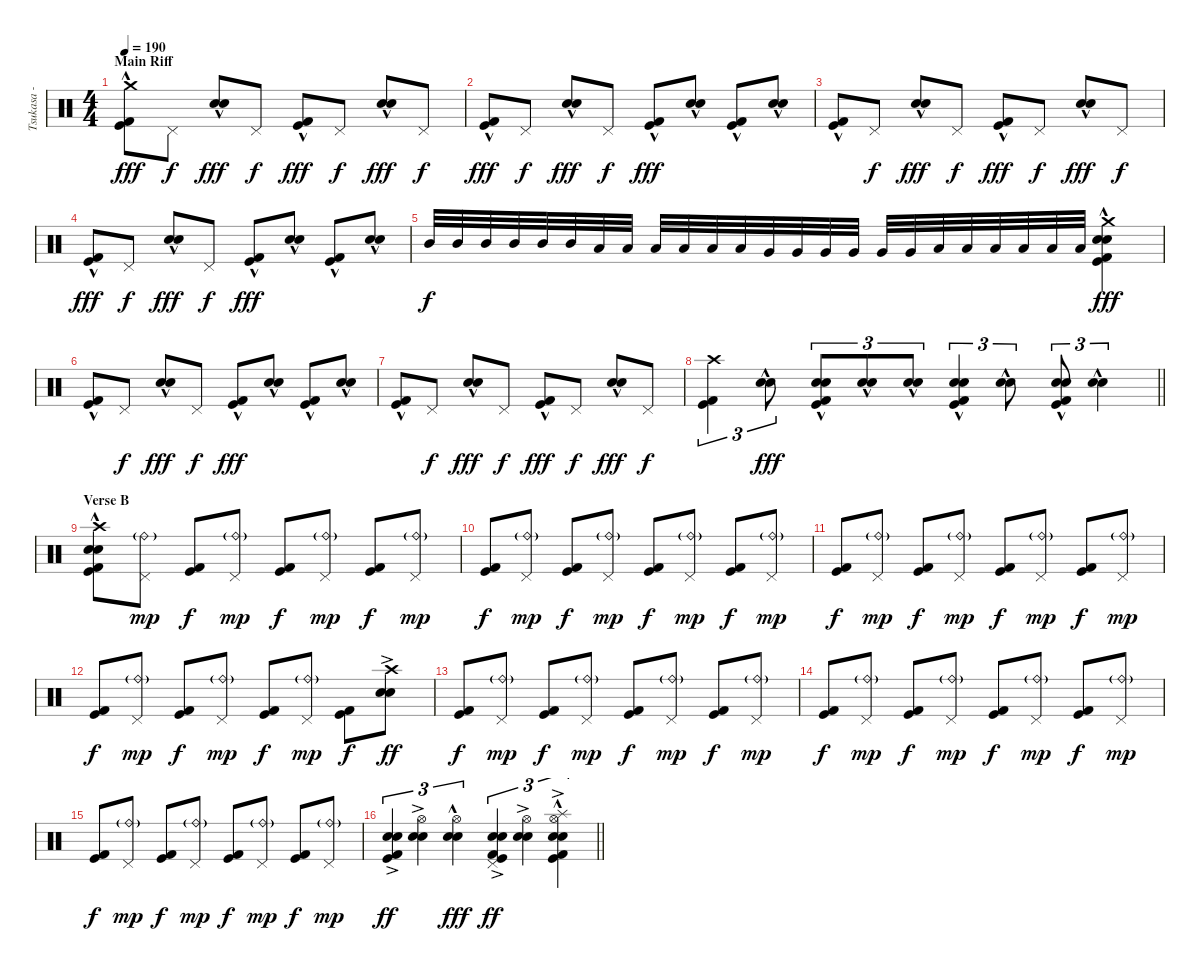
\track ("Tsukasa - Drums" "Tsukasa - ") {instrument percussion}
\staff {score}
\articulation defaults
\ts (4 4)
\section ("" "Main Riff")
\tempo 190
\clef neutral
\ks c
("Crash medium (hit)" "Kick (hit)"{hac} "Kick (hit) 2"{hac}).8{dy fff} "Pedal Hi-Hat (hit)".8{dy f} ("Electric Snare (hit)"{hac} "Snare (hit) 2"{hac}).8{dy fff} "Pedal Hi-Hat (hit)".8{dy f} ("Kick (hit)"{hac} "Kick (hit) 2"{hac}).8{dy fff} "Pedal Hi-Hat (hit)".8{dy f} ("Electric Snare (hit)"{hac} "Snare (hit) 2").8{dy fff} "Pedal Hi-Hat (hit)".8{dy f} |
("Kick (hit)"{hac} "Kick (hit) 2"{hac}).8{dy fff} "Pedal Hi-Hat (hit)".8{dy f} ("Electric Snare (hit)"{hac} "Snare (hit) 2"{hac}).8{dy fff} "Pedal Hi-Hat (hit)".8{dy f} ("Kick (hit)"{hac} "Kick (hit) 2"{hac}).8{dy fff} ("Electric Snare (hit)"{hac} "Snare (hit) 2"{hac}).8 ("Kick (hit)"{hac} "Kick (hit) 2"{hac}).8 ("Electric Snare (hit)"{hac} "Snare (hit) 2"{hac}).8 |
("Kick (hit)"{hac} "Kick (hit) 2"{hac}).8 "Pedal Hi-Hat (hit)".8{dy f} ("Electric Snare (hit)"{hac} "Snare (hit) 2"{hac}).8{dy fff} "Pedal Hi-Hat (hit)".8{dy f} ("Kick (hit)"{hac} "Kick (hit) 2"{hac}).8{dy fff} "Pedal Hi-Hat (hit)".8{dy f} ("Electric Snare (hit)"{hac} "Snare (hit) 2"{hac}).8{dy fff} "Pedal Hi-Hat (hit)".8{dy f} |
("Kick (hit)"{hac} "Kick (hit) 2"{hac}).8{dy fff} "Pedal Hi-Hat (hit)".8{dy f} ("Electric Snare (hit)"{hac} "Snare (hit) 2"{hac}).8{dy fff} "Pedal Hi-Hat (hit)".8{dy f} ("Kick (hit)"{hac} "Kick (hit) 2"{hac}).8{dy fff} ("Electric Snare (hit)"{hac} "Snare (hit) 2"{hac}).8 ("Kick (hit)"{hac} "Kick (hit) 2"{hac}).8 ("Electric Snare (hit)"{hac} "Snare (hit) 2"{hac}).8 |
"Mid Tom (hit)".32{dy f} "Mid Tom (hit)".32 "Mid Tom (hit)".32 "Mid Tom (hit)".32 "Mid Tom (hit)".32 "Mid Tom (hit)".32 "Low Tom (hit)".32 "Low Tom (hit)".32 "Low Tom (hit)".32 "Low Tom (hit)".32 "Low Tom (hit)".32 "Low Tom (hit)".32 "Very Low Tom (hit)".32 "Very Low Tom (hit)".32 "Very Low Tom (hit)".32 "Very Low Tom (hit)".32 "Very Low Tom (hit)".32 "Very Low Tom (hit)".32 "Low Floor Tom (hit)".32 "Low Floor Tom (hit)".32 "Low Floor Tom (hit)".32 "Low Floor Tom (hit)".32 "Low Floor Tom (hit)".32 "Low Floor Tom (hit)".32 ("Crash medium (hit)" "Electric Snare (hit)"{hac} "Snare (hit) 2" "Kick (hit)" "Kick (hit) 2").4{dy fff} |
("Kick (hit)"{hac} "Kick (hit) 2"{hac}).8 "Pedal Hi-Hat (hit)".8{dy f} ("Electric Snare (hit)"{hac} "Snare (hit) 2").8{dy fff} "Pedal Hi-Hat (hit)".8{dy f} ("Kick (hit)"{hac} "Kick (hit) 2"{hac}).8{dy fff} ("Electric Snare (hit)"{hac} "Snare (hit) 2").8 ("Kick (hit)"{hac} "Kick (hit) 2"{hac}).8 ("Electric Snare (hit)"{hac} "Snare (hit) 2").8 |
("Kick (hit)"{hac} "Kick (hit) 2"{hac}).8 "Pedal Hi-Hat (hit)".8{dy f} ("Electric Snare (hit)"{hac} "Snare (hit) 2").8{dy fff} "Pedal Hi-Hat (hit)".8{dy f} ("Kick (hit)"{hac} "Kick (hit) 2"{hac}).8{dy fff} "Pedal Hi-Hat (hit)".8{dy f} ("Electric Snare (hit)"{hac} "Snare (hit) 2").8{dy fff} "Pedal Hi-Hat (hit)".8{dy f} |
\barLineRight lightlight
("Crash high (hit)" "Kick (hit)" "Kick (hit) 2").4{tu (3 2)} ("Electric Snare (hit)"{hac} "Snare (hit) 2").8{tu (3 2) dy fff} ("Electric Snare (hit)"{hac} "Snare (hit) 2" "Kick (hit)" "Kick (hit) 2").8{tu (3 2)} ("Electric Snare (hit)"{hac} "Snare (hit) 2").8{tu (3 2)} ("Electric Snare (hit)"{hac} "Snare (hit) 2").8{tu (3 2)} ("Electric Snare (hit)"{hac} "Snare (hit) 2" "Kick (hit)" "Kick (hit) 2").4{tu (3 2)} ("Electric Snare (hit)"{hac} "Snare (hit) 2").8{tu (3 2)} ("Electric Snare (hit)"{hac} "Snare (hit) 2" "Kick (hit)" "Kick (hit) 2").8{tu (3 2)} ("Electric Snare (hit)"{hac} "Snare (hit) 2").4{tu (3 2)} |
\section ("" "Verse B")
("Crash high (hit)" "Electric Snare (hit)"{hac} "Snare (hit) 2" "Kick (hit)" "Kick (hit) 2").8 ("Ride (bell)"{g} "Pedal Hi-Hat (hit)").8{dy mp} ("Kick (hit)" "Kick (hit) 2").8{dy f} ("Ride (bell)"{g} "Pedal Hi-Hat (hit)").8{dy mp} ("Kick (hit)" "Kick (hit) 2").8{dy f} ("Ride (bell)"{g} "Pedal Hi-Hat (hit)").8{dy mp} ("Kick (hit)" "Kick (hit) 2").8{dy f} ("Ride (bell)"{g} "Pedal Hi-Hat (hit)").8{dy mp} |
("Kick (hit)" "Kick (hit) 2").8{dy f} ("Ride (bell)"{g} "Pedal Hi-Hat (hit)").8{dy mp} ("Kick (hit)" "Kick (hit) 2").8{dy f} ("Ride (bell)"{g} "Pedal Hi-Hat (hit)").8{dy mp} ("Kick (hit)" "Kick (hit) 2").8{dy f} ("Ride (bell)"{g} "Pedal Hi-Hat (hit)").8{dy mp} ("Kick (hit)" "Kick (hit) 2").8{dy f} ("Ride (bell)"{g} "Pedal Hi-Hat (hit)").8{dy mp} |
("Kick (hit)" "Kick (hit) 2").8{dy f} ("Ride (bell)"{g} "Pedal Hi-Hat (hit)").8{dy mp} ("Kick (hit)" "Kick (hit) 2").8{dy f} ("Ride (bell)"{g} "Pedal Hi-Hat (hit)").8{dy mp} ("Kick (hit)" "Kick (hit) 2").8{dy f} ("Ride (bell)"{g} "Pedal Hi-Hat (hit)").8{dy mp} ("Kick (hit)" "Kick (hit) 2").8{dy f} ("Ride (bell)"{g} "Pedal Hi-Hat (hit)").8{dy mp} |
("Kick (hit)" "Kick (hit) 2").8{dy f} ("Ride (bell)"{g} "Pedal Hi-Hat (hit)").8{dy mp} ("Kick (hit)" "Kick (hit) 2").8{dy f} ("Ride (bell)"{g} "Pedal Hi-Hat (hit)").8{dy mp} ("Kick (hit)" "Kick (hit) 2").8{dy f} ("Ride (bell)"{g} "Pedal Hi-Hat (hit)").8{dy mp} ("Kick (hit)" "Kick (hit) 2").8{dy f} ("Crash high (hit)" "Electric Snare (hit)"{ac} "Snare (hit) 2").8{dy ff} |
("Kick (hit)" "Kick (hit) 2").8{dy f} ("Ride (bell)"{g} "Pedal Hi-Hat (hit)").8{dy mp} ("Kick (hit)" "Kick (hit) 2").8{dy f} ("Ride (bell)"{g} "Pedal Hi-Hat (hit)").8{dy mp} ("Kick (hit)" "Kick (hit) 2").8{dy f} ("Ride (bell)"{g} "Pedal Hi-Hat (hit)").8{dy mp} ("Kick (hit)" "Kick (hit) 2").8{dy f} ("Ride (bell)"{g} "Pedal Hi-Hat (hit)").8{dy mp} |
("Kick (hit)" "Kick (hit) 2").8{dy f} ("Ride (bell)"{g} "Pedal Hi-Hat (hit)").8{dy mp} ("Kick (hit)" "Kick (hit) 2").8{dy f} ("Ride (bell)"{g} "Pedal Hi-Hat (hit)").8{dy mp} ("Kick (hit)" "Kick (hit) 2").8{dy f} ("Ride (bell)"{g} "Pedal Hi-Hat (hit)").8{dy mp} ("Kick (hit)" "Kick (hit) 2").8{dy f} ("Ride (bell)"{g} "Pedal Hi-Hat (hit)").8{dy mp} |
("Kick (hit)" "Kick (hit) 2").8{dy f} ("Ride (bell)"{g} "Pedal Hi-Hat (hit)").8{dy mp} ("Kick (hit)" "Kick (hit) 2").8{dy f} ("Ride (bell)"{g} "Pedal Hi-Hat (hit)").8{dy mp} ("Kick (hit)" "Kick (hit) 2").8{dy f} ("Ride (bell)"{g} "Pedal Hi-Hat (hit)").8{dy mp} ("Kick (hit)" "Kick (hit) 2").8{dy f} ("Ride (bell)"{g} "Pedal Hi-Hat (hit)").8{dy mp} |
\barLineRight lightlight
("Electric Snare (hit)"{ac} "Snare (hit) 2" "Kick (hit)" "Kick (hit) 2").4{tu (3 2) dy ff} ("Hi-Hat (open)" "Electric Snare (hit)"{ac} "Snare (hit) 2").4{tu (3 2)} ("Hi-Hat (open)"{hac} "Electric Snare (hit)" "Snare (hit) 2").4{tu (3 2) dy fff} ("Pedal Hi-Hat (hit)" "Electric Snare (hit)"{ac} "Snare (hit) 2" "Kick (hit)" "Kick (hit) 2").4{tu (3 2) dy ff} ("Hi-Hat (open)" "Electric Snare (hit)"{ac} "Snare (hit) 2").4{tu (3 2)} ("Hi-Hat (open)"{hac} "Splash (hit)"{ac} "Electric Snare (hit)" "Snare (hit) 2" "Kick (hit)" "Kick (hit) 2").4{tu (3 2)}
